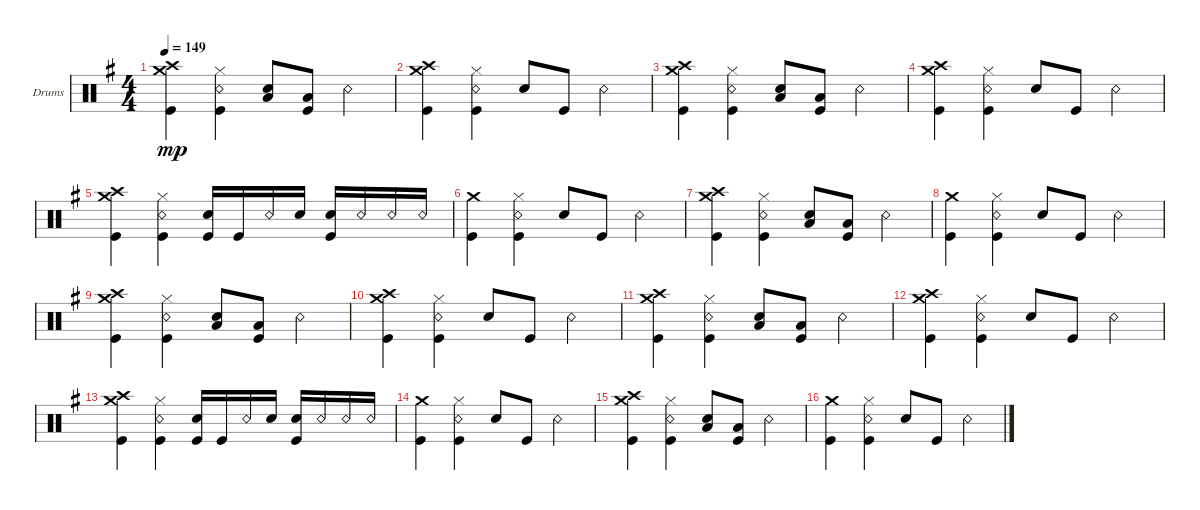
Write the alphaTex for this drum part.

\defaultSystemsLayout 4
\bracketExtendMode groupsimilarinstruments
\firstSystemTrackNameOrientation horizontal
\otherSystemsTrackNameOrientation horizontal
\track ("Drumkit" "Drums") {instrument percussion}
\staff {score}
\articulation defaults
\ts (4 4)
\tempo 149
\clef neutral
\ks eminor
("Kick (hit)" "Crash medium (hit)" "Crash high (hit)").4{dy mp} ("Snare (rim shot)" "Hi-Hat (closed)" "Kick (hit)").4 ("Snare (hit) 2" "Low Tom (hit)").8 ("Kick (hit)" "Low Tom (hit)").8 "Snare (rim shot)".4 |
("Kick (hit)" "Crash medium (hit)" "Crash high (hit)").4 ("Snare (rim shot)" "Hi-Hat (closed)" "Kick (hit)").4 "Snare (hit) 2".8 "Kick (hit)".8 "Snare (rim shot)".4 |
("Kick (hit)" "Crash medium (hit)" "Crash high (hit)").4 ("Snare (rim shot)" "Hi-Hat (closed)" "Kick (hit)").4 ("Snare (hit) 2" "Low Tom (hit)").8 ("Kick (hit)" "Low Tom (hit)").8 "Snare (rim shot)".4 |
("Kick (hit)" "Crash medium (hit)" "Crash high (hit)").4 ("Snare (rim shot)" "Hi-Hat (closed)" "Kick (hit)").4 "Snare (hit) 2".8 "Kick (hit)".8 "Snare (rim shot)".4 |
("Kick (hit)" "Crash medium (hit)" "Crash high (hit)").4 ("Snare (rim shot)" "Hi-Hat (closed)" "Kick (hit)").4 ("Snare (hit) 2" "Kick (hit)").16 "Kick (hit)".16 "Snare (rim shot)".16 "Snare (hit) 2".16 ("Snare (hit) 2" "Kick (hit)").16 "Snare (rim shot)".16 "Snare (rim shot)".16 "Snare (rim shot)".16 |
("Kick (hit)" "Crash medium (hit)").4 ("Snare (rim shot)" "Hi-Hat (closed)" "Kick (hit)").4 "Snare (hit) 2".8 "Kick (hit)".8 "Snare (rim shot)".4 |
("Kick (hit)" "Crash medium (hit)" "Crash high (hit)").4 ("Snare (rim shot)" "Hi-Hat (closed)" "Kick (hit)").4 ("Snare (hit) 2" "Low Tom (hit)").8 ("Kick (hit)" "Low Tom (hit)").8 "Snare (rim shot)".4 |
("Kick (hit)" "Crash medium (hit)").4 ("Snare (rim shot)" "Hi-Hat (closed)" "Kick (hit)").4 "Snare (hit) 2".8 "Kick (hit)".8 "Snare (rim shot)".4 |
("Kick (hit)" "Crash medium (hit)" "Crash high (hit)").4 ("Snare (rim shot)" "Hi-Hat (closed)" "Kick (hit)").4 ("Snare (hit) 2" "Low Tom (hit)").8 ("Kick (hit)" "Low Tom (hit)").8 "Snare (rim shot)".4 |
("Kick (hit)" "Crash medium (hit)" "Crash high (hit)").4 ("Snare (rim shot)" "Hi-Hat (closed)" "Kick (hit)").4 "Snare (hit) 2".8 "Kick (hit)".8 "Snare (rim shot)".4 |
("Kick (hit)" "Crash medium (hit)" "Crash high (hit)").4 ("Snare (rim shot)" "Hi-Hat (closed)" "Kick (hit)").4 ("Snare (hit) 2" "Low Tom (hit)").8 ("Kick (hit)" "Low Tom (hit)").8 "Snare (rim shot)".4 |
("Kick (hit)" "Crash medium (hit)" "Crash high (hit)").4 ("Snare (rim shot)" "Hi-Hat (closed)" "Kick (hit)").4 "Snare (hit) 2".8 "Kick (hit)".8 "Snare (rim shot)".4 |
("Kick (hit)" "Crash medium (hit)" "Crash high (hit)").4 ("Snare (rim shot)" "Hi-Hat (closed)" "Kick (hit)").4 ("Snare (hit) 2" "Kick (hit)").16 "Kick (hit)".16 "Snare (rim shot)".16 "Snare (hit) 2".16 ("Snare (hit) 2" "Kick (hit)").16 "Snare (rim shot)".16 "Snare (rim shot)".16 "Snare (rim shot)".16 |
("Kick (hit)" "Crash medium (hit)").4 ("Snare (rim shot)" "Hi-Hat (closed)" "Kick (hit)").4 "Snare (hit) 2".8 "Kick (hit)".8 "Snare (rim shot)".4 |
("Kick (hit)" "Crash medium (hit)" "Crash high (hit)").4 ("Snare (rim shot)" "Hi-Hat (closed)" "Kick (hit)").4 ("Snare (hit) 2" "Low Tom (hit)").8 ("Kick (hit)" "Low Tom (hit)").8 "Snare (rim shot)".4 |
("Kick (hit)" "Crash medium (hit)").4 ("Snare (rim shot)" "Hi-Hat (closed)" "Kick (hit)").4 "Snare (hit) 2".8 "Kick (hit)".8 "Snare (rim shot)".4
